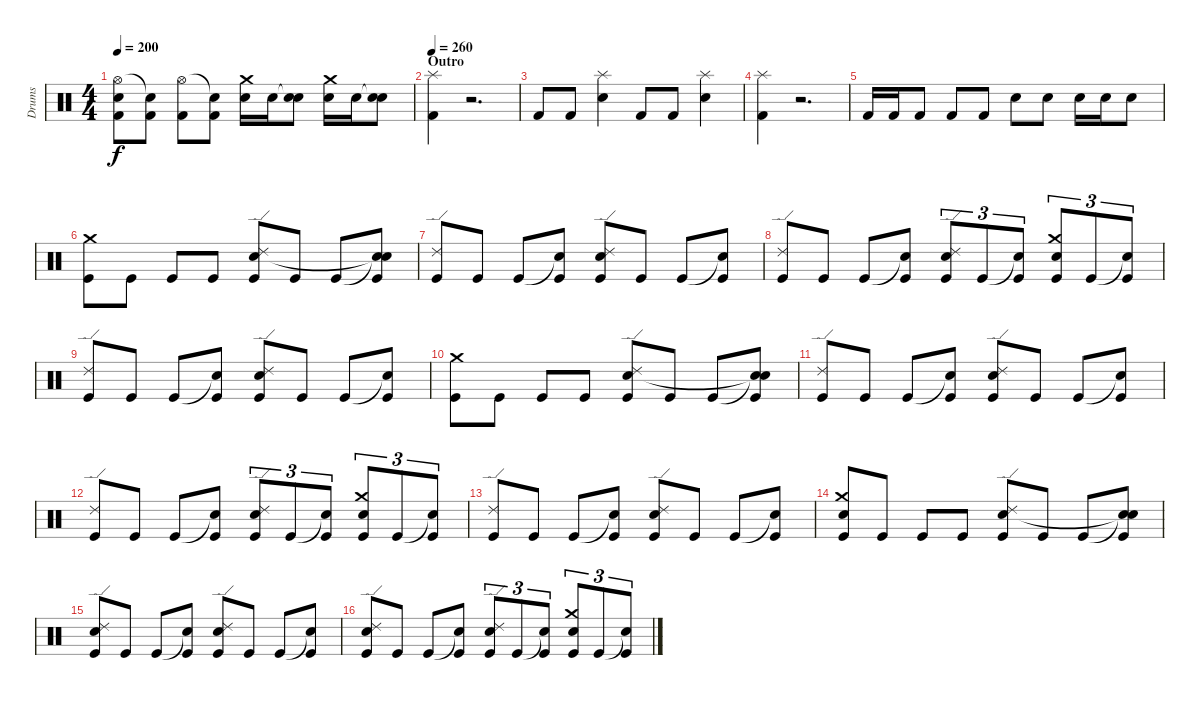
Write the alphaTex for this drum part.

\track ("Drums" "Drums") {instrument percussion}
\staff {score}
\articulation defaults
\ts (4 4)
\tempo 200
\clef neutral
\ks c
("Hi-Hat (open)" "Electric Snare (hit)" "Kick (hit) 2").8{dy f} ("Snare (hit)"{t} "Kick (hit) 2").8 ("Hi-Hat (open)" "Kick (hit) 2").8 ("Snare (hit)"{t} "Kick (hit) 2").8 ("Crash medium (hit)" "Electric Snare (hit)").16 "Electric Snare (hit)".16 ("Snare (hit)"{t} "Electric Snare (hit)").8 ("Crash medium (hit)" "Electric Snare (hit)").16 "Electric Snare (hit)".16 ("Snare (hit)"{t} "Electric Snare (hit)").8 |
\section ("" "Outro")
\tempo 260
("Splash (hit)" "Kick (hit) 2").4 r.2{d} |
"Kick (hit) 2".8 "Kick (hit) 2".8 ("Splash (hit)" "Electric Snare (hit)").4 "Kick (hit) 2".8 "Kick (hit) 2".8 ("Splash (hit)" "Electric Snare (hit)").4 |
("Splash (hit)" "Kick (hit) 2").4 r.2{d} |
"Kick (hit) 2".16 "Kick (hit) 2".16 "Kick (hit) 2".8 "Kick (hit) 2".8 "Kick (hit) 2".8 "Electric Snare (hit)".8 "Electric Snare (hit)".8 "Electric Snare (hit)".16 "Electric Snare (hit)".16 "Electric Snare (hit)".8 |
("Crash medium (hit)" "Kick (hit)").8 "Kick (hit)".8 "Kick (hit)".8 "Kick (hit)".8 ("Ride (edge) 2" "Electric Snare (hit)" "Kick (hit)").8 "Kick (hit)".8 "Kick (hit)".8 ("Snare (hit)"{t} "Snare (hit)"{t} "Kick (hit)").8 |
("Ride (edge) 2" "Kick (hit)").8 "Kick (hit)".8 "Kick (hit)".8 ("Snare (hit)"{t} "Kick (hit)").8 ("Ride (edge) 2" "Electric Snare (hit)" "Kick (hit)").8 "Kick (hit)".8 "Kick (hit)".8 ("Snare (hit)"{t} "Kick (hit)").8 |
("Ride (edge) 2" "Kick (hit)").8 "Kick (hit)".8 "Kick (hit)".8 ("Snare (hit)"{t} "Kick (hit)").8 ("Ride (edge) 2" "Electric Snare (hit)" "Kick (hit)").8{tu (3 2)} "Kick (hit)".8{tu (3 2)} ("Snare (hit)"{t} "Kick (hit)").8{tu (3 2)} ("Crash medium (hit)" "Electric Snare (hit)" "Kick (hit)").8{tu (3 2)} "Kick (hit)".8{tu (3 2)} ("Snare (hit)"{t} "Kick (hit)").8{tu (3 2)} |
("Ride (edge) 2" "Kick (hit)").8 "Kick (hit)".8 "Kick (hit)".8 ("Snare (hit)"{t} "Kick (hit)").8 ("Ride (edge) 2" "Electric Snare (hit)" "Kick (hit)").8 "Kick (hit)".8 "Kick (hit)".8 ("Snare (hit)"{t} "Kick (hit)").8 |
("Crash medium (hit)" "Kick (hit)").8 "Kick (hit)".8 "Kick (hit)".8 "Kick (hit)".8 ("Ride (edge) 2" "Electric Snare (hit)" "Kick (hit)").8 "Kick (hit)".8 "Kick (hit)".8 ("Snare (hit)"{t} "Snare (hit)"{t} "Kick (hit)").8 |
("Ride (edge) 2" "Kick (hit)").8 "Kick (hit)".8 "Kick (hit)".8 ("Snare (hit)"{t} "Kick (hit)").8 ("Ride (edge) 2" "Electric Snare (hit)" "Kick (hit)").8 "Kick (hit)".8 "Kick (hit)".8 ("Snare (hit)"{t} "Kick (hit)").8 |
("Ride (edge) 2" "Kick (hit)").8 "Kick (hit)".8 "Kick (hit)".8 ("Snare (hit)"{t} "Kick (hit)").8 ("Ride (edge) 2" "Electric Snare (hit)" "Kick (hit)").8{tu (3 2)} "Kick (hit)".8{tu (3 2)} ("Snare (hit)"{t} "Kick (hit)").8{tu (3 2)} ("Crash medium (hit)" "Electric Snare (hit)" "Kick (hit)").8{tu (3 2)} "Kick (hit)".8{tu (3 2)} ("Snare (hit)"{t} "Kick (hit)").8{tu (3 2)} |
("Ride (edge) 2" "Kick (hit)").8 "Kick (hit)".8 "Kick (hit)".8 ("Snare (hit)"{t} "Kick (hit)").8 ("Ride (edge) 2" "Electric Snare (hit)" "Kick (hit)").8 "Kick (hit)".8 "Kick (hit)".8 ("Snare (hit)"{t} "Kick (hit)").8 |
("Crash medium (hit)" "Electric Snare (hit)" "Kick (hit)").8 "Kick (hit)".8 "Kick (hit)".8 "Kick (hit)".8 ("Ride (edge) 2" "Electric Snare (hit)" "Kick (hit)").8 "Kick (hit)".8 "Kick (hit)".8 ("Snare (hit)"{t} "Snare (hit)"{t} "Kick (hit)").8 |
("Ride (edge) 2" "Electric Snare (hit)" "Kick (hit)").8 "Kick (hit)".8 "Kick (hit)".8 ("Snare (hit)"{t} "Kick (hit)").8 ("Ride (edge) 2" "Electric Snare (hit)" "Kick (hit)").8 "Kick (hit)".8 "Kick (hit)".8 ("Snare (hit)"{t} "Kick (hit)").8 |
("Ride (edge) 2" "Electric Snare (hit)" "Kick (hit)").8 "Kick (hit)".8 "Kick (hit)".8 ("Snare (hit)"{t} "Kick (hit)").8 ("Ride (edge) 2" "Electric Snare (hit)" "Kick (hit)").8{tu (3 2)} "Kick (hit)".8{tu (3 2)} ("Snare (hit)"{t} "Kick (hit)").8{tu (3 2)} ("Crash medium (hit)" "Electric Snare (hit)" "Kick (hit)").8{tu (3 2)} "Kick (hit)".8{tu (3 2)} ("Snare (hit)"{t} "Kick (hit)").8{tu (3 2)}
